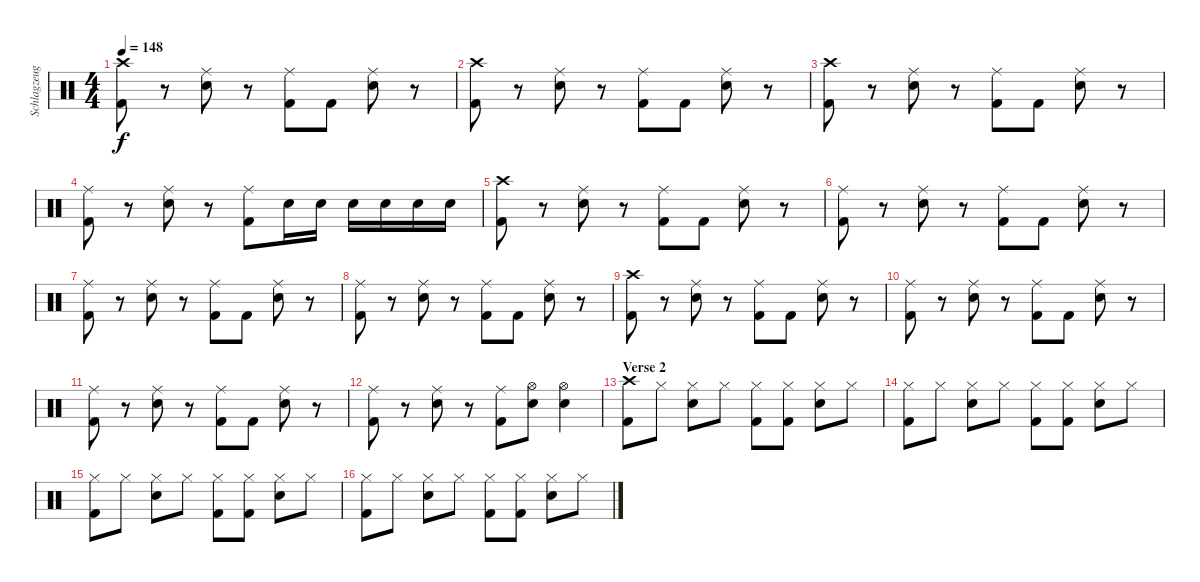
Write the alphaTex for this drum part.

\track ("Schlagzeug" "Schlagzeug") {instrument percussion}
\staff {score}
\articulation defaults
\ts (4 4)
\tempo 148
\clef neutral
\ks c
("Crash high (hit)" "Kick (hit) 2").8{dy f} r.8 ("Ride (middle)" "Electric Snare (hit)").8 r.8 ("Ride (middle)" "Kick (hit) 2").8 "Kick (hit) 2".8 ("Ride (middle)" "Electric Snare (hit)").8 r.8 |
("Crash high (hit)" "Kick (hit) 2").8 r.8 ("Ride (middle)" "Electric Snare (hit)").8 r.8 ("Ride (middle)" "Kick (hit) 2").8 "Kick (hit) 2".8 ("Ride (middle)" "Electric Snare (hit)").8 r.8 |
("Crash high (hit)" "Kick (hit) 2").8 r.8 ("Ride (middle)" "Electric Snare (hit)").8 r.8 ("Ride (middle)" "Kick (hit) 2").8 "Kick (hit) 2".8 ("Ride (middle)" "Electric Snare (hit)").8 r.8 |
("Ride (middle)" "Kick (hit) 2").8 r.8 ("Ride (middle)" "Electric Snare (hit)").8 r.8 ("Ride (middle)" "Kick (hit) 2").8 "Electric Snare (hit)".16 "Electric Snare (hit)".16 "Electric Snare (hit)".16 "Electric Snare (hit)".16 "Electric Snare (hit)".16 "Electric Snare (hit)".16 |
("Crash high (hit)" "Kick (hit) 2").8 r.8 ("Ride (middle)" "Electric Snare (hit)").8 r.8 ("Ride (middle)" "Kick (hit) 2").8 "Kick (hit) 2".8 ("Ride (middle)" "Electric Snare (hit)").8 r.8 |
("Ride (middle)" "Kick (hit) 2").8 r.8 ("Ride (middle)" "Electric Snare (hit)").8 r.8 ("Ride (middle)" "Kick (hit) 2").8 "Kick (hit) 2".8 ("Ride (middle)" "Electric Snare (hit)").8 r.8 |
("Ride (middle)" "Kick (hit) 2").8 r.8 ("Ride (middle)" "Electric Snare (hit)").8 r.8 ("Ride (middle)" "Kick (hit) 2").8 "Kick (hit) 2".8 ("Ride (middle)" "Electric Snare (hit)").8 r.8 |
("Ride (middle)" "Kick (hit) 2").8 r.8 ("Ride (middle)" "Electric Snare (hit)").8 r.8 ("Ride (middle)" "Kick (hit) 2").8 "Kick (hit) 2".8 ("Ride (middle)" "Electric Snare (hit)").8 r.8 |
("Crash high (hit)" "Kick (hit) 2").8 r.8 ("Ride (middle)" "Electric Snare (hit)").8 r.8 ("Ride (middle)" "Kick (hit) 2").8 "Kick (hit) 2".8 ("Ride (middle)" "Electric Snare (hit)").8 r.8 |
("Ride (middle)" "Kick (hit) 2").8 r.8 ("Ride (middle)" "Electric Snare (hit)").8 r.8 ("Ride (middle)" "Kick (hit) 2").8 "Kick (hit) 2".8 ("Ride (middle)" "Electric Snare (hit)").8 r.8 |
("Ride (middle)" "Kick (hit) 2").8 r.8 ("Ride (middle)" "Electric Snare (hit)").8 r.8 ("Ride (middle)" "Kick (hit) 2").8 "Kick (hit) 2".8 ("Ride (middle)" "Electric Snare (hit)").8 r.8 |
("Ride (middle)" "Kick (hit) 2").8 r.8 ("Ride (middle)" "Electric Snare (hit)").8 r.8 ("Ride (middle)" "Kick (hit) 2").8 ("Hi-Hat (open)" "Electric Snare (hit)").8 ("Hi-Hat (open)" "Electric Snare (hit)").4 |
\section ("" "Verse 2")
("Crash high (hit)" "Kick (hit) 2").8 "Hi-Hat (closed)".8 ("Hi-Hat (closed)" "Electric Snare (hit)").8 "Hi-Hat (closed)".8 ("Hi-Hat (closed)" "Kick (hit) 2").8 ("Hi-Hat (closed)" "Kick (hit) 2").8 ("Hi-Hat (closed)" "Electric Snare (hit)").8 "Hi-Hat (closed)".8 |
("Hi-Hat (closed)" "Kick (hit) 2").8 "Hi-Hat (closed)".8 ("Hi-Hat (closed)" "Electric Snare (hit)").8 "Hi-Hat (closed)".8 ("Hi-Hat (closed)" "Kick (hit) 2").8 ("Hi-Hat (closed)" "Kick (hit) 2").8 ("Hi-Hat (closed)" "Electric Snare (hit)").8 "Hi-Hat (closed)".8 |
("Hi-Hat (closed)" "Kick (hit) 2").8 "Hi-Hat (closed)".8 ("Hi-Hat (closed)" "Electric Snare (hit)").8 "Hi-Hat (closed)".8 ("Hi-Hat (closed)" "Kick (hit) 2").8 ("Hi-Hat (closed)" "Kick (hit) 2").8 ("Hi-Hat (closed)" "Electric Snare (hit)").8 "Hi-Hat (closed)".8 |
("Hi-Hat (closed)" "Kick (hit) 2").8 "Hi-Hat (closed)".8 ("Hi-Hat (closed)" "Electric Snare (hit)").8 "Hi-Hat (closed)".8 ("Hi-Hat (closed)" "Kick (hit) 2").8 ("Hi-Hat (closed)" "Kick (hit) 2").8 ("Hi-Hat (closed)" "Electric Snare (hit)").8 "Hi-Hat (closed)".8
